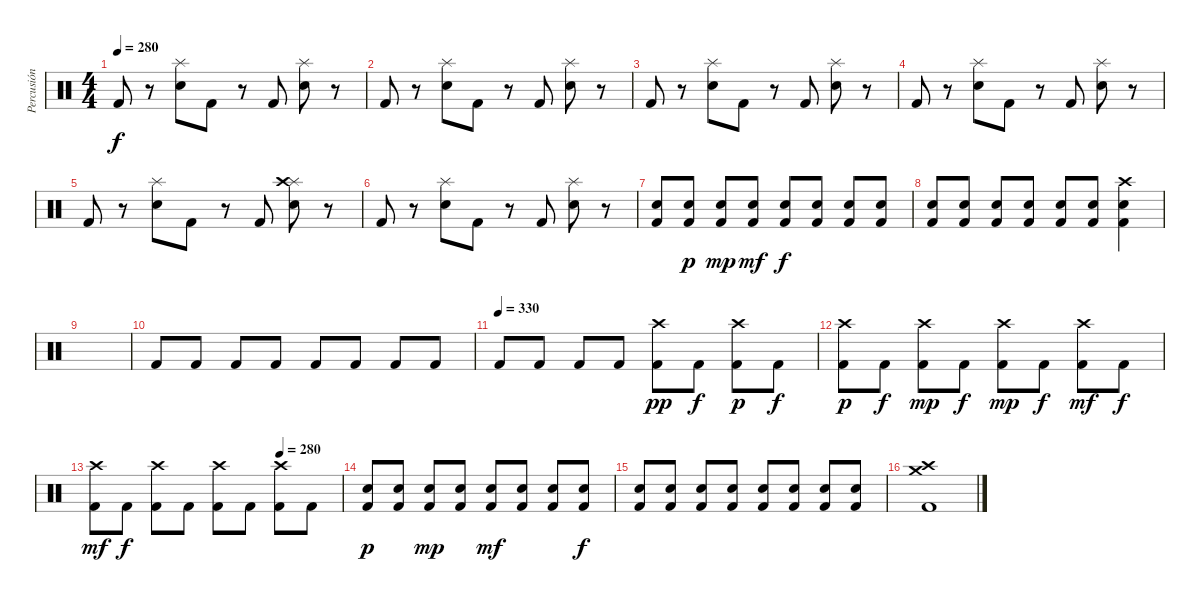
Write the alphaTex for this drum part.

\track ("Percusión" "Percusión") {instrument percussion}
\staff {score}
\articulation defaults
\ts (4 4)
\tempo 280
\clef neutral
\ks c "Kick (hit) 2".8{dy f}
r.8 ("Snare (hit) 2" "Splash (hit)").8 "Kick (hit) 2".8 r.8 "Kick (hit) 2".8 ("Snare (hit) 2" "Splash (hit)").8 r.8 |
"Kick (hit) 2".8 r.8 ("Snare (hit) 2" "Splash (hit)").8 "Kick (hit) 2".8 r.8 "Kick (hit) 2".8 ("Snare (hit) 2" "Splash (hit)").8 r.8 |
"Kick (hit) 2".8 r.8 ("Snare (hit) 2" "Splash (hit)").8 "Kick (hit) 2".8 r.8 "Kick (hit) 2".8 ("Snare (hit) 2" "Splash (hit)").8 r.8 |
"Kick (hit) 2".8 r.8 ("Snare (hit) 2" "Splash (hit)").8 "Kick (hit) 2".8 r.8 "Kick (hit) 2".8 ("Snare (hit) 2" "Splash (hit)").8 r.8 |
"Kick (hit) 2".8 r.8 ("Snare (hit) 2" "Splash (hit)").8 "Kick (hit) 2".8 r.8 "Kick (hit) 2".8 ("Snare (hit) 2" "Splash (hit)" "Crash high (hit)").8 r.8 |
"Kick (hit) 2".8 r.8 ("Snare (hit) 2" "Splash (hit)").8 "Kick (hit) 2".8 r.8 "Kick (hit) 2".8 ("Snare (hit) 2" "Splash (hit)").8 r.8 |
("Snare (hit) 2" "Kick (hit) 2").8 ("Snare (hit) 2" "Kick (hit) 2").8{dy p} ("Snare (hit) 2" "Kick (hit) 2").8{dy mp} ("Snare (hit) 2" "Kick (hit) 2").8{dy mf} ("Snare (hit) 2" "Kick (hit) 2").8{dy f} ("Snare (hit) 2" "Kick (hit) 2").8 ("Snare (hit) 2" "Kick (hit) 2").8 ("Snare (hit) 2" "Kick (hit) 2").8 |
("Snare (hit) 2" "Kick (hit) 2").8 ("Snare (hit) 2" "Kick (hit) 2").8 ("Snare (hit) 2" "Kick (hit) 2").8 ("Snare (hit) 2" "Kick (hit) 2").8 ("Snare (hit) 2" "Kick (hit) 2").8 ("Snare (hit) 2" "Kick (hit) 2").8 ("Snare (hit) 2" "Crash high (hit)" "Kick (hit) 2").4 |
|
"Kick (hit) 2".8 "Kick (hit) 2".8 "Kick (hit) 2".8 "Kick (hit) 2".8 "Kick (hit) 2".8 "Kick (hit) 2".8 "Kick (hit) 2".8 "Kick (hit) 2".8 |
\tempo (330)
"Kick (hit) 2".8 "Kick (hit) 2".8 "Kick (hit) 2".8 "Kick (hit) 2".8 ("Crash high (hit)" "Kick (hit) 2").8{dy pp} "Kick (hit) 2".8{dy f} ("Crash high (hit)" "Kick (hit) 2").8{dy p} "Kick (hit) 2".8{dy f} |
("Crash high (hit)" "Kick (hit) 2").8{dy p} "Kick (hit) 2".8{dy f} ("Crash high (hit)" "Kick (hit) 2").8{dy mp} "Kick (hit) 2".8{dy f} ("Crash high (hit)" "Kick (hit) 2").8{dy mp} "Kick (hit) 2".8{dy f} ("Crash high (hit)" "Kick (hit) 2").8{dy mf} "Kick (hit) 2".8{dy f} |
\tempo (280 0.75)
("Crash high (hit)" "Kick (hit) 2").8{dy mf} "Kick (hit) 2".8{dy f} ("Crash high (hit)" "Kick (hit) 2").8 "Kick (hit) 2".8 ("Crash high (hit)" "Kick (hit) 2").8 "Kick (hit) 2".8 ("Crash high (hit)" "Kick (hit) 2").8 "Kick (hit) 2".8 |
("Snare (hit) 2" "Kick (hit) 2").8{dy p} ("Snare (hit) 2" "Kick (hit) 2").8 ("Snare (hit) 2" "Kick (hit) 2").8{dy mp} ("Snare (hit) 2" "Kick (hit) 2").8 ("Snare (hit) 2" "Kick (hit) 2").8{dy mf} ("Snare (hit) 2" "Kick (hit) 2").8 ("Snare (hit) 2" "Kick (hit) 2").8 ("Snare (hit) 2" "Kick (hit) 2").8{dy f} |
("Snare (hit) 2" "Kick (hit) 2").8 ("Snare (hit) 2" "Kick (hit) 2").8 ("Snare (hit) 2" "Kick (hit) 2").8 ("Snare (hit) 2" "Kick (hit) 2").8 ("Snare (hit) 2" "Kick (hit) 2").8 ("Snare (hit) 2" "Kick (hit) 2").8 ("Snare (hit) 2" "Kick (hit) 2").8 ("Snare (hit) 2" "Kick (hit) 2").8 |
("Crash medium (hit)" "Crash high (hit)" "Kick (hit) 2").1
